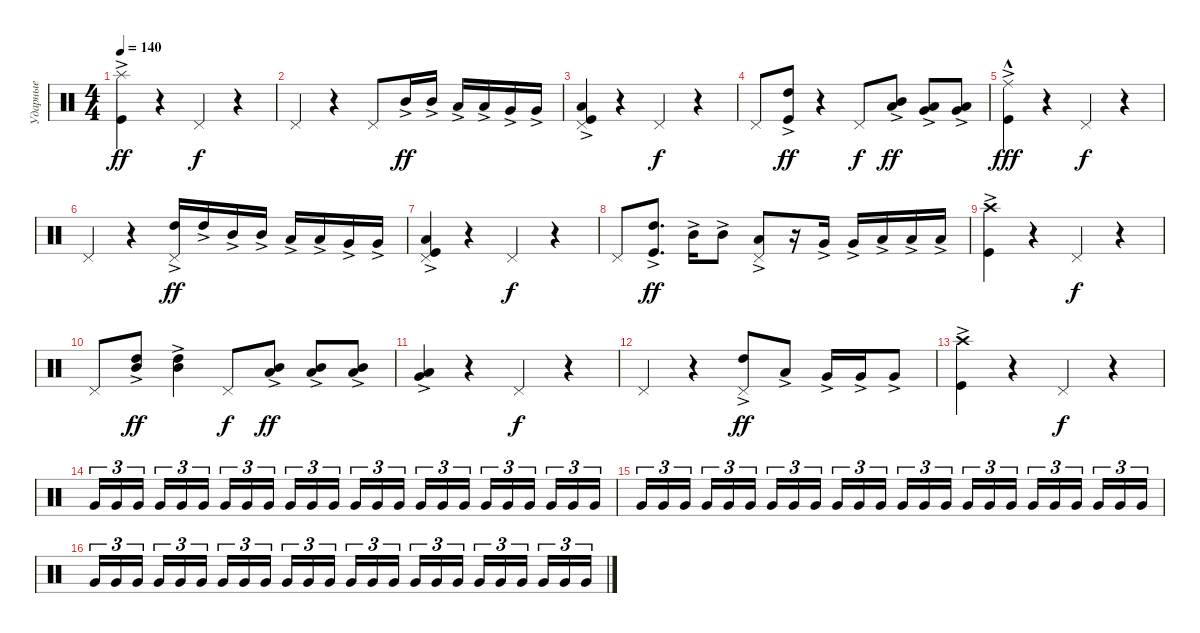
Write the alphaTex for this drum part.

\track ("Ударные" "Ударные") {instrument percussion}
\staff {score}
\articulation defaults
\ts (4 4)
\tempo 140
\clef neutral
\ks c
("Kick (hit)"{ac} "Splash (hit)").4{dy ff} r.4 "Pedal Hi-Hat (hit)".4{dy f} r.4 |
"Pedal Hi-Hat (hit)".4 r.4 "Pedal Hi-Hat (hit)".8 "Mid Tom (hit)"{ac}.16{dy ff} "Mid Tom (hit)"{ac}.16 "Low Tom (hit)"{ac}.16 "Low Tom (hit)"{ac}.16 "Very Low Tom (hit)"{ac}.16 "Very Low Tom (hit)"{ac}.16 |
("Kick (hit)"{ac} "Low Floor Tom (hit)" "Pedal Hi-Hat (hit)").4 r.4 "Pedal Hi-Hat (hit)".4{dy f} r.4 |
"Pedal Hi-Hat (hit)".8 ("Kick (hit)"{ac} "High Tom (hit)"{ac}).8{dy ff} r.4 "Pedal Hi-Hat (hit)".8{dy f} ("Mid Tom (hit)"{ac} "Low Tom (hit)"{ac}).8{dy ff} ("Very Low Tom (hit)"{ac} "Low Floor Tom (hit)"{ac}).8 ("Very Low Tom (hit)"{ac} "Low Floor Tom (hit)"{ac}).8 |
("Kick (hit)"{ac} "Ride (middle)"{hac}).4{dy fff} r.4 "Pedal Hi-Hat (hit)".4{dy f} r.4 |
"Pedal Hi-Hat (hit)".4 r.4 ("High Tom (hit)"{ac} "Pedal Hi-Hat (hit)").16{dy ff} "High Tom (hit)"{ac}.16 "Mid Tom (hit)"{ac}.16 "Mid Tom (hit)"{ac}.16 "Low Tom (hit)"{ac}.16 "Low Tom (hit)"{ac}.16 "Very Low Tom (hit)"{ac}.16 "Very Low Tom (hit)"{ac}.16 |
("Kick (hit)"{ac} "Low Floor Tom (hit)"{ac} "Pedal Hi-Hat (hit)").4 r.4 "Pedal Hi-Hat (hit)".4{dy f} r.4 |
"Pedal Hi-Hat (hit)".8 ("High Tom (hit)"{ac} "Kick (hit)").8{d dy ff} "Mid Tom (hit)"{ac}.16 "Mid Tom (hit)"{ac}.8 ("Low Tom (hit)"{ac} "Pedal Hi-Hat (hit)").8 r.16 "Very Low Tom (hit)"{ac}.16 "Very Low Tom (hit)"{ac}.16 "Low Floor Tom (hit)"{ac}.16 "Low Floor Tom (hit)"{ac}.16 "Low Floor Tom (hit)"{ac}.16 |
("Crash high (hit)" "Kick (hit)"{ac}).4 r.4 "Pedal Hi-Hat (hit)".4{dy f} r.4 |
"Pedal Hi-Hat (hit)".8 ("Mid Tom (hit)"{ac} "High Tom (hit)"{ac}).8{dy ff} ("Mid Tom (hit)"{ac} "High Tom (hit)"{ac}).4 "Pedal Hi-Hat (hit)".8{dy f} ("Mid Tom (hit)"{ac} "Low Tom (hit)"{ac}).8{dy ff} ("Mid Tom (hit)"{ac} "Low Tom (hit)"{ac}).8 ("Mid Tom (hit)"{ac} "Low Tom (hit)"{ac}).8 |
("Very Low Tom (hit)"{ac} "Low Floor Tom (hit)"{ac}).4 r.4 "Pedal Hi-Hat (hit)".4{dy f} r.4 |
"Pedal Hi-Hat (hit)".4 r.4 ("Pedal Hi-Hat (hit)" "High Tom (hit)"{ac}).8{dy ff} "Low Tom (hit)"{ac}.8 "Very Low Tom (hit)"{ac}.16 "Very Low Tom (hit)"{ac}.16 "Very Low Tom (hit)"{ac}.8 |
("Kick (hit)"{ac} "Crash high (hit)").4 r.4 "Pedal Hi-Hat (hit)".4{dy f} r.4 |
"Very Low Tom (hit)".16{tu (3 2) volume 0} "Very Low Tom (hit)".16{tu (3 2) volume 9} "Very Low Tom (hit)".16{tu (3 2) beam splitsecondary} "Very Low Tom (hit)".16{tu (3 2)} "Very Low Tom (hit)".16{tu (3 2)} "Very Low Tom (hit)".16{tu (3 2)} "Very Low Tom (hit)".16{tu (3 2)} "Very Low Tom (hit)".16{tu (3 2)} "Very Low Tom (hit)".16{tu (3 2) beam splitsecondary} "Very Low Tom (hit)".16{tu (3 2)} "Very Low Tom (hit)".16{tu (3 2)} "Very Low Tom (hit)".16{tu (3 2)} "Very Low Tom (hit)".16{tu (3 2)} "Very Low Tom (hit)".16{tu (3 2)} "Very Low Tom (hit)".16{tu (3 2) beam splitsecondary} "Very Low Tom (hit)".16{tu (3 2)} "Very Low Tom (hit)".16{tu (3 2)} "Very Low Tom (hit)".16{tu (3 2)} "Very Low Tom (hit)".16{tu (3 2)} "Very Low Tom (hit)".16{tu (3 2)} "Very Low Tom (hit)".16{tu (3 2) beam splitsecondary} "Very Low Tom (hit)".16{tu (3 2)} "Very Low Tom (hit)".16{tu (3 2)} "Very Low Tom (hit)".16{tu (3 2)} |
"Very Low Tom (hit)".16{tu (3 2)} "Very Low Tom (hit)".16{tu (3 2)} "Very Low Tom (hit)".16{tu (3 2) beam splitsecondary} "Very Low Tom (hit)".16{tu (3 2)} "Very Low Tom (hit)".16{tu (3 2)} "Very Low Tom (hit)".16{tu (3 2)} "Very Low Tom (hit)".16{tu (3 2)} "Very Low Tom (hit)".16{tu (3 2)} "Very Low Tom (hit)".16{tu (3 2) beam splitsecondary} "Very Low Tom (hit)".16{tu (3 2)} "Very Low Tom (hit)".16{tu (3 2)} "Very Low Tom (hit)".16{tu (3 2)} "Very Low Tom (hit)".16{tu (3 2)} "Very Low Tom (hit)".16{tu (3 2)} "Very Low Tom (hit)".16{tu (3 2) beam splitsecondary} "Very Low Tom (hit)".16{tu (3 2)} "Very Low Tom (hit)".16{tu (3 2)} "Very Low Tom (hit)".16{tu (3 2)} "Very Low Tom (hit)".16{tu (3 2)} "Very Low Tom (hit)".16{tu (3 2)} "Very Low Tom (hit)".16{tu (3 2) beam splitsecondary} "Very Low Tom (hit)".16{tu (3 2)} "Very Low Tom (hit)".16{tu (3 2)} "Very Low Tom (hit)".16{tu (3 2)} |
"Very Low Tom (hit)".16{tu (3 2)} "Very Low Tom (hit)".16{tu (3 2)} "Very Low Tom (hit)".16{tu (3 2) beam splitsecondary} "Very Low Tom (hit)".16{tu (3 2)} "Very Low Tom (hit)".16{tu (3 2)} "Very Low Tom (hit)".16{tu (3 2)} "Very Low Tom (hit)".16{tu (3 2)} "Very Low Tom (hit)".16{tu (3 2)} "Very Low Tom (hit)".16{tu (3 2) beam splitsecondary} "Very Low Tom (hit)".16{tu (3 2)} "Very Low Tom (hit)".16{tu (3 2)} "Very Low Tom (hit)".16{tu (3 2)} "Very Low Tom (hit)".16{tu (3 2)} "Very Low Tom (hit)".16{tu (3 2)} "Very Low Tom (hit)".16{tu (3 2) beam splitsecondary} "Very Low Tom (hit)".16{tu (3 2)} "Very Low Tom (hit)".16{tu (3 2)} "Very Low Tom (hit)".16{tu (3 2)} "Very Low Tom (hit)".16{tu (3 2)} "Very Low Tom (hit)".16{tu (3 2)} "Very Low Tom (hit)".16{tu (3 2) beam splitsecondary} "Very Low Tom (hit)".16{tu (3 2)} "Very Low Tom (hit)".16{tu (3 2)} "Very Low Tom (hit)".16{tu (3 2)}
